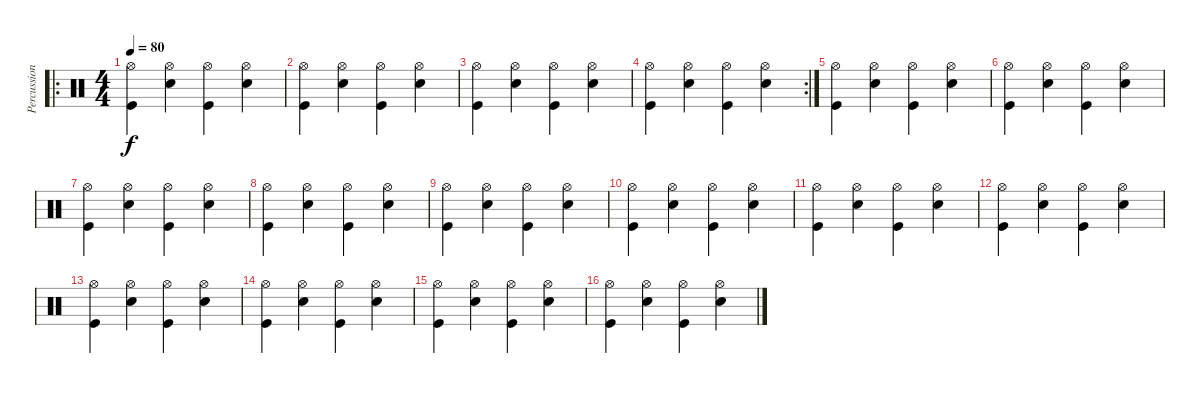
\track ("Percussion" "Percussion") {instrument percussion}
\staff {score}
\articulation defaults
\ro
\ts (4 4)
\tempo 80
\clef neutral
\ks c
("Hi-Hat (open)" "Kick (hit)").4{dy f} ("Hi-Hat (open)" "Electric Snare (hit)").4 ("Hi-Hat (open)" "Kick (hit)").4 ("Hi-Hat (open)" "Electric Snare (hit)").4 |
("Hi-Hat (open)" "Kick (hit)").4 ("Hi-Hat (open)" "Electric Snare (hit)").4 ("Hi-Hat (open)" "Kick (hit)").4 ("Hi-Hat (open)" "Electric Snare (hit)").4 |
("Hi-Hat (open)" "Kick (hit)").4 ("Hi-Hat (open)" "Electric Snare (hit)").4 ("Hi-Hat (open)" "Kick (hit)").4 ("Hi-Hat (open)" "Electric Snare (hit)").4 |
\rc 2
("Hi-Hat (open)" "Kick (hit)").4 ("Hi-Hat (open)" "Electric Snare (hit)").4 ("Hi-Hat (open)" "Kick (hit)").4 ("Hi-Hat (open)" "Electric Snare (hit)").4 |
("Hi-Hat (open)" "Kick (hit)").4 ("Hi-Hat (open)" "Electric Snare (hit)").4 ("Hi-Hat (open)" "Kick (hit)").4 ("Hi-Hat (open)" "Electric Snare (hit)").4 |
("Hi-Hat (open)" "Kick (hit)").4 ("Hi-Hat (open)" "Electric Snare (hit)").4 ("Hi-Hat (open)" "Kick (hit)").4 ("Hi-Hat (open)" "Electric Snare (hit)").4 |
("Hi-Hat (open)" "Kick (hit)").4 ("Hi-Hat (open)" "Electric Snare (hit)").4 ("Hi-Hat (open)" "Kick (hit)").4 ("Hi-Hat (open)" "Electric Snare (hit)").4 |
("Hi-Hat (open)" "Kick (hit)").4 ("Hi-Hat (open)" "Electric Snare (hit)").4 ("Hi-Hat (open)" "Kick (hit)").4 ("Hi-Hat (open)" "Electric Snare (hit)").4 |
("Hi-Hat (open)" "Kick (hit)").4 ("Hi-Hat (open)" "Electric Snare (hit)").4 ("Hi-Hat (open)" "Kick (hit)").4 ("Hi-Hat (open)" "Electric Snare (hit)").4 |
("Hi-Hat (open)" "Kick (hit)").4 ("Hi-Hat (open)" "Electric Snare (hit)").4 ("Hi-Hat (open)" "Kick (hit)").4 ("Hi-Hat (open)" "Electric Snare (hit)").4 |
("Hi-Hat (open)" "Kick (hit)").4 ("Hi-Hat (open)" "Electric Snare (hit)").4 ("Hi-Hat (open)" "Kick (hit)").4 ("Hi-Hat (open)" "Electric Snare (hit)").4 |
("Hi-Hat (open)" "Kick (hit)").4 ("Hi-Hat (open)" "Electric Snare (hit)").4 ("Hi-Hat (open)" "Kick (hit)").4 ("Hi-Hat (open)" "Electric Snare (hit)").4 |
("Hi-Hat (open)" "Kick (hit)").4 ("Hi-Hat (open)" "Electric Snare (hit)").4 ("Hi-Hat (open)" "Kick (hit)").4 ("Hi-Hat (open)" "Electric Snare (hit)").4 |
("Hi-Hat (open)" "Kick (hit)").4 ("Hi-Hat (open)" "Electric Snare (hit)").4 ("Hi-Hat (open)" "Kick (hit)").4 ("Hi-Hat (open)" "Electric Snare (hit)").4 |
("Hi-Hat (open)" "Kick (hit)").4 ("Hi-Hat (open)" "Electric Snare (hit)").4 ("Hi-Hat (open)" "Kick (hit)").4 ("Hi-Hat (open)" "Electric Snare (hit)").4 |
("Hi-Hat (open)" "Kick (hit)").4 ("Hi-Hat (open)" "Electric Snare (hit)").4 ("Hi-Hat (open)" "Kick (hit)").4 ("Hi-Hat (open)" "Electric Snare (hit)").4
